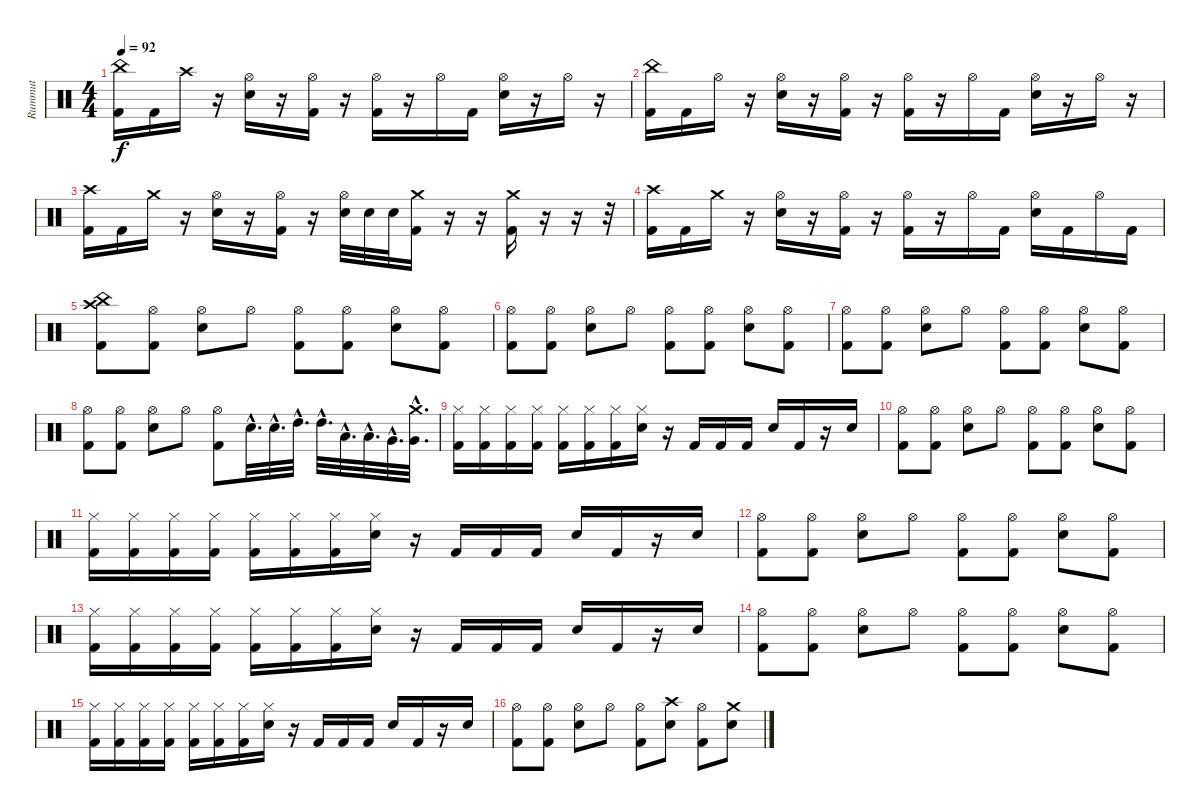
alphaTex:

\track ("Rummut" "Rummut") {instrument percussion}
\staff {score}
\articulation defaults
\ts (4 4)
\tempo 92
\clef neutral
\ks c
("China (hit)" "Kick (hit) 2").16{dy f} "Kick (hit) 2".16 "Crash high (hit)".16 r.16 ("Hi-Hat (open)" "Snare (hit) 2").16 r.16 ("Hi-Hat (open)" "Kick (hit) 2").16 r.16 ("Hi-Hat (open)" "Kick (hit) 2").16 r.16 "Hi-Hat (open)".16 "Kick (hit) 2".16 ("Hi-Hat (open)" "Snare (hit) 2").16 r.16 "Hi-Hat (open)".16 r.16 |
("China (hit)" "Kick (hit) 2").16 "Kick (hit) 2".16 "Hi-Hat (open)".16 r.16 ("Hi-Hat (open)" "Snare (hit) 2").16 r.16 ("Hi-Hat (open)" "Kick (hit) 2").16 r.16 ("Hi-Hat (open)" "Kick (hit) 2").16 r.16 "Hi-Hat (open)".16 "Kick (hit) 2".16 ("Hi-Hat (open)" "Snare (hit) 2").16 r.16 "Hi-Hat (open)".16 r.16 |
("Crash high (hit)" "Kick (hit) 2").16 "Kick (hit) 2".16 "Crash medium (hit)".16 r.16 ("Hi-Hat (open)" "Snare (hit) 2").16 r.16 ("Hi-Hat (open)" "Kick (hit) 2").16 r.16 ("Hi-Hat (open)" "Snare (hit) 2").32 "Snare (hit) 2".32 "Snare (hit) 2".32 ("Crash medium (hit)" "Kick (hit) 2").16 r.16 r.16 ("Crash medium (hit)" "Kick (hit) 2").16 r.16 r.16 r.32 |
("Crash high (hit)" "Kick (hit) 2").16 "Kick (hit) 2".16 "Crash medium (hit)".16 r.16 ("Hi-Hat (open)" "Snare (hit) 2").16 r.16 ("Hi-Hat (open)" "Kick (hit) 2").16 r.16 ("Hi-Hat (open)" "Kick (hit) 2").16 r.16 "Hi-Hat (open)".16 "Kick (hit) 2".16 ("Hi-Hat (open)" "Snare (hit) 2").16 "Kick (hit) 2".16 "Hi-Hat (open)".16 "Kick (hit) 2".16 |
("China (hit)" "Crash high (hit)" "Kick (hit) 2").8 ("Hi-Hat (open)" "Kick (hit) 2").8 ("Hi-Hat (open)" "Snare (hit) 2").8 "Hi-Hat (open)".8 ("Hi-Hat (open)" "Kick (hit) 2").8 ("Hi-Hat (open)" "Kick (hit) 2").8 ("Hi-Hat (open)" "Snare (hit) 2").8 ("Hi-Hat (open)" "Kick (hit) 2").8 |
("Hi-Hat (open)" "Kick (hit) 2").8 ("Hi-Hat (open)" "Kick (hit) 2").8 ("Hi-Hat (open)" "Snare (hit) 2").8 "Hi-Hat (open)".8 ("Hi-Hat (open)" "Kick (hit) 2").8 ("Hi-Hat (open)" "Kick (hit) 2").8 ("Hi-Hat (open)" "Snare (hit) 2").8 ("Hi-Hat (open)" "Kick (hit) 2").8 |
("Hi-Hat (open)" "Kick (hit) 2").8 ("Hi-Hat (open)" "Kick (hit) 2").8 ("Hi-Hat (open)" "Snare (hit) 2").8 "Hi-Hat (open)".8 ("Hi-Hat (open)" "Kick (hit) 2").8 ("Hi-Hat (open)" "Kick (hit) 2").8 ("Hi-Hat (open)" "Snare (hit) 2").8 ("Hi-Hat (open)" "Kick (hit) 2").8 |
("Hi-Hat (open)" "Kick (hit) 2").8 ("Hi-Hat (open)" "Kick (hit) 2").8 ("Hi-Hat (open)" "Snare (hit) 2").8 "Hi-Hat (open)".8 ("Hi-Hat (open)" "Kick (hit) 2").8 "Snare (hit) 2"{hac}.32{d} "Snare (hit) 2"{hac}.32{d} "High Tom (hit)"{hac}.32{d} "High Tom (hit)"{hac}.32{d} "Low Tom (hit)"{hac}.32{d} "Low Tom (hit)"{hac}.32{d} "Very Low Tom (hit)"{hac}.32{d} ("Crash medium (hit)"{hac} "Very Low Tom (hit)"{hac}).32{d} |
("Hi-Hat (closed)" "Kick (hit) 2").16 ("Hi-Hat (closed)" "Kick (hit) 2").16 ("Hi-Hat (closed)" "Kick (hit) 2").16 ("Hi-Hat (closed)" "Kick (hit) 2").16 ("Hi-Hat (closed)" "Kick (hit) 2").16 ("Hi-Hat (closed)" "Kick (hit) 2").16 ("Hi-Hat (closed)" "Kick (hit) 2").16 ("Hi-Hat (closed)" "Snare (hit) 2").16 r.16 "Kick (hit) 2".16 "Kick (hit) 2".16 "Kick (hit) 2".16 "Snare (hit) 2".16 "Kick (hit) 2".16 r.16 "Snare (hit) 2".16 |
("Hi-Hat (open)" "Kick (hit) 2").8 ("Hi-Hat (open)" "Kick (hit) 2").8 ("Hi-Hat (open)" "Snare (hit) 2").8 "Hi-Hat (open)".8 ("Hi-Hat (open)" "Kick (hit) 2").8 ("Hi-Hat (open)" "Kick (hit) 2").8 ("Hi-Hat (open)" "Snare (hit) 2").8 ("Hi-Hat (open)" "Kick (hit) 2").8 |
("Hi-Hat (closed)" "Kick (hit) 2").16 ("Hi-Hat (closed)" "Kick (hit) 2").16 ("Hi-Hat (closed)" "Kick (hit) 2").16 ("Hi-Hat (closed)" "Kick (hit) 2").16 ("Hi-Hat (closed)" "Kick (hit) 2").16 ("Hi-Hat (closed)" "Kick (hit) 2").16 ("Hi-Hat (closed)" "Kick (hit) 2").16 ("Hi-Hat (closed)" "Snare (hit) 2").16 r.16 "Kick (hit) 2".16 "Kick (hit) 2".16 "Kick (hit) 2".16 "Snare (hit) 2".16 "Kick (hit) 2".16 r.16 "Snare (hit) 2".16 |
("Hi-Hat (open)" "Kick (hit) 2").8 ("Hi-Hat (open)" "Kick (hit) 2").8 ("Hi-Hat (open)" "Snare (hit) 2").8 "Hi-Hat (open)".8 ("Hi-Hat (open)" "Kick (hit) 2").8 ("Hi-Hat (open)" "Kick (hit) 2").8 ("Hi-Hat (open)" "Snare (hit) 2").8 ("Hi-Hat (open)" "Kick (hit) 2").8 |
("Hi-Hat (closed)" "Kick (hit) 2").16 ("Hi-Hat (closed)" "Kick (hit) 2").16 ("Hi-Hat (closed)" "Kick (hit) 2").16 ("Hi-Hat (closed)" "Kick (hit) 2").16 ("Hi-Hat (closed)" "Kick (hit) 2").16 ("Hi-Hat (closed)" "Kick (hit) 2").16 ("Hi-Hat (closed)" "Kick (hit) 2").16 ("Hi-Hat (closed)" "Snare (hit) 2").16 r.16 "Kick (hit) 2".16 "Kick (hit) 2".16 "Kick (hit) 2".16 "Snare (hit) 2".16 "Kick (hit) 2".16 r.16 "Snare (hit) 2".16 |
("Hi-Hat (open)" "Kick (hit) 2").8 ("Hi-Hat (open)" "Kick (hit) 2").8 ("Hi-Hat (open)" "Snare (hit) 2").8 "Hi-Hat (open)".8 ("Hi-Hat (open)" "Kick (hit) 2").8 ("Hi-Hat (open)" "Kick (hit) 2").8 ("Hi-Hat (open)" "Snare (hit) 2").8 ("Hi-Hat (open)" "Kick (hit) 2").8 |
("Hi-Hat (closed)" "Kick (hit) 2").16 ("Hi-Hat (closed)" "Kick (hit) 2").16 ("Hi-Hat (closed)" "Kick (hit) 2").16 ("Hi-Hat (closed)" "Kick (hit) 2").16 ("Hi-Hat (closed)" "Kick (hit) 2").16 ("Hi-Hat (closed)" "Kick (hit) 2").16 ("Hi-Hat (closed)" "Kick (hit) 2").16 ("Hi-Hat (closed)" "Snare (hit) 2").16 r.16 "Kick (hit) 2".16 "Kick (hit) 2".16 "Kick (hit) 2".16 "Snare (hit) 2".16 "Kick (hit) 2".16 r.16 "Snare (hit) 2".16 |
("Hi-Hat (open)" "Kick (hit) 2").8 ("Hi-Hat (open)" "Kick (hit) 2").8 ("Hi-Hat (open)" "Snare (hit) 2").8 "Hi-Hat (open)".8 ("Hi-Hat (open)" "Kick (hit) 2").8 ("Crash high (hit)" "Snare (hit) 2").8 ("Hi-Hat (open)" "Kick (hit) 2").8 ("Crash medium (hit)" "Snare (hit) 2").8
